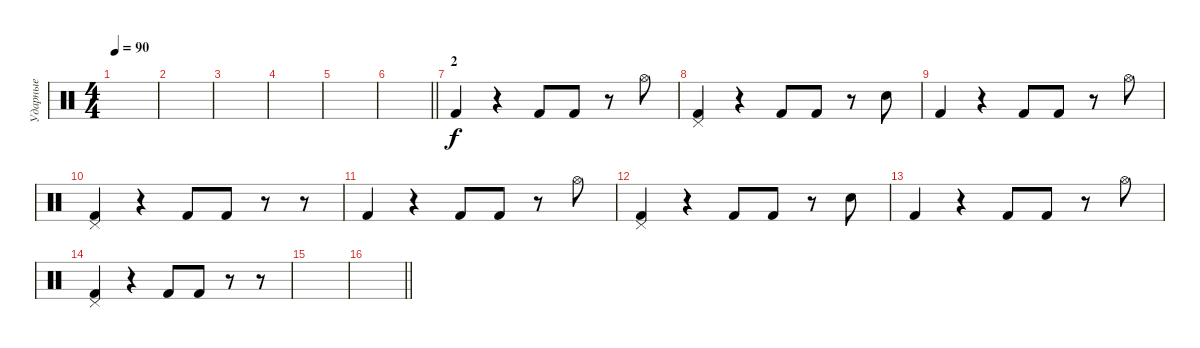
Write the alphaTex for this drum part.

\track ("Ударные" "Ударные") {instrument percussion}
\staff {score}
\articulation defaults
\ts (4 4)
\tempo 90
\clef neutral
\ks c
|
|
|
|
|
\barLineRight lightlight
|
\section ("" "2")
"Kick (hit) 2".4 r.4 "Kick (hit) 2".8 "Kick (hit) 2".8 r.8 "Hi-Hat (open)".8 |
("Kick (hit) 2" "Pedal Hi-Hat (hit)").4 r.4 "Kick (hit) 2".8 "Kick (hit) 2".8 r.8 "Electric Snare (hit)".8 |
"Kick (hit) 2".4 r.4 "Kick (hit) 2".8 "Kick (hit) 2".8 r.8 "Hi-Hat (open)".8 |
("Kick (hit) 2" "Pedal Hi-Hat (hit)").4 r.4 "Kick (hit) 2".8 "Kick (hit) 2".8 r.8 r.8 |
"Kick (hit) 2".4 r.4 "Kick (hit) 2".8 "Kick (hit) 2".8 r.8 "Hi-Hat (open)".8 |
("Kick (hit) 2" "Pedal Hi-Hat (hit)").4 r.4 "Kick (hit) 2".8 "Kick (hit) 2".8 r.8 "Electric Snare (hit)".8 |
"Kick (hit) 2".4 r.4 "Kick (hit) 2".8 "Kick (hit) 2".8 r.8 "Hi-Hat (open)".8 |
("Kick (hit) 2" "Pedal Hi-Hat (hit)").4 r.4 "Kick (hit) 2".8 "Kick (hit) 2".8 r.8 r.8 |
|
\barLineRight lightlight
